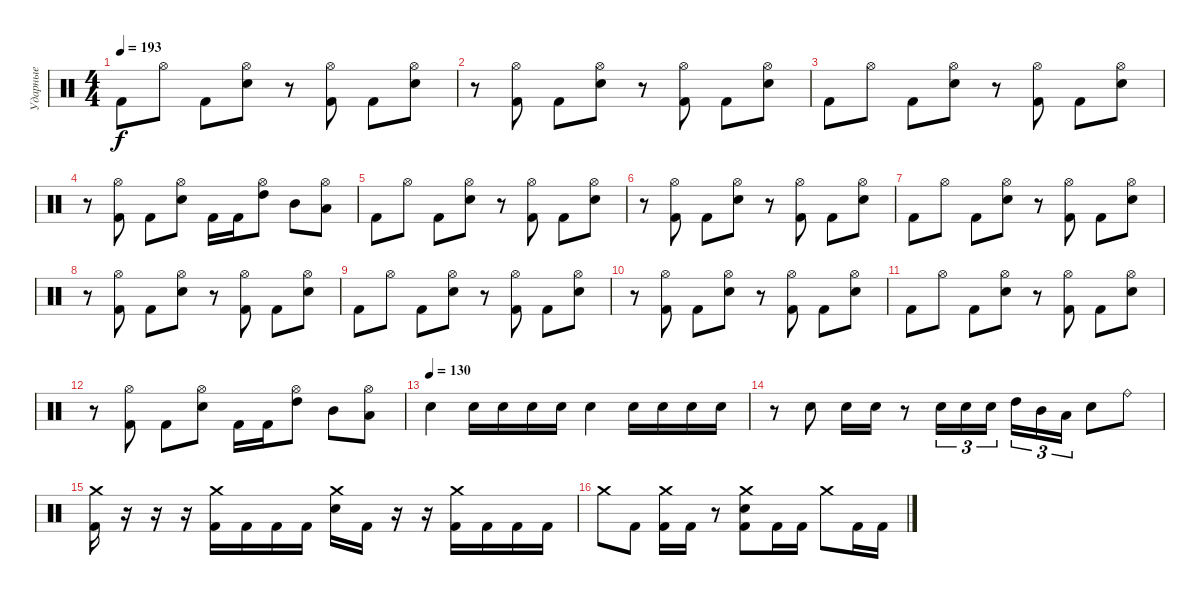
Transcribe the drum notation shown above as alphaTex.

\track ("Ударные" "Ударные") {instrument percussion}
\staff {score}
\articulation defaults
\ts (4 4)
\tempo 193
\clef neutral
\ks c "Kick (hit) 2".8{dy f} "Hi-Hat (open)".8 "Kick (hit) 2".8
("Hi-Hat (open)" "Electric Snare (hit)").8 r.8 ("Hi-Hat (open)" "Kick (hit) 2").8 "Kick (hit) 2".8 ("Hi-Hat (open)" "Electric Snare (hit)").8 |
r.8 ("Hi-Hat (open)" "Kick (hit) 2").8 "Kick (hit) 2".8 ("Hi-Hat (open)" "Electric Snare (hit)").8 r.8 ("Hi-Hat (open)" "Kick (hit) 2").8 "Kick (hit) 2".8 ("Hi-Hat (open)" "Electric Snare (hit)").8 |
"Kick (hit) 2".8 "Hi-Hat (open)".8 "Kick (hit) 2".8 ("Hi-Hat (open)" "Electric Snare (hit)").8 r.8 ("Hi-Hat (open)" "Kick (hit) 2").8 "Kick (hit) 2".8 ("Hi-Hat (open)" "Electric Snare (hit)").8 |
r.8 ("Hi-Hat (open)" "Kick (hit) 2").8 "Kick (hit) 2".8 ("Hi-Hat (open)" "Electric Snare (hit)").8 "Kick (hit) 2".16 "Kick (hit) 2".16 ("Hi-Hat (open)" "High Tom (hit)").8 "Mid Tom (hit)".8 ("Hi-Hat (open)" "Low Tom (hit)").8 |
"Kick (hit) 2".8 "Hi-Hat (open)".8 "Kick (hit) 2".8 ("Hi-Hat (open)" "Electric Snare (hit)").8 r.8 ("Hi-Hat (open)" "Kick (hit) 2").8 "Kick (hit) 2".8 ("Hi-Hat (open)" "Electric Snare (hit)").8 |
r.8 ("Hi-Hat (open)" "Kick (hit) 2").8 "Kick (hit) 2".8 ("Hi-Hat (open)" "Electric Snare (hit)").8 r.8 ("Hi-Hat (open)" "Kick (hit) 2").8 "Kick (hit) 2".8 ("Hi-Hat (open)" "Electric Snare (hit)").8 |
"Kick (hit) 2".8 "Hi-Hat (open)".8 "Kick (hit) 2".8 ("Hi-Hat (open)" "Electric Snare (hit)").8 r.8 ("Hi-Hat (open)" "Kick (hit) 2").8 "Kick (hit) 2".8 ("Hi-Hat (open)" "Electric Snare (hit)").8 |
r.8 ("Hi-Hat (open)" "Kick (hit) 2").8 "Kick (hit) 2".8 ("Hi-Hat (open)" "Electric Snare (hit)").8 r.8 ("Hi-Hat (open)" "Kick (hit) 2").8 "Kick (hit) 2".8 ("Hi-Hat (open)" "Electric Snare (hit)").8 |
"Kick (hit) 2".8 "Hi-Hat (open)".8 "Kick (hit) 2".8 ("Hi-Hat (open)" "Electric Snare (hit)").8 r.8 ("Hi-Hat (open)" "Kick (hit) 2").8 "Kick (hit) 2".8 ("Hi-Hat (open)" "Electric Snare (hit)").8 |
r.8 ("Hi-Hat (open)" "Kick (hit) 2").8 "Kick (hit) 2".8 ("Hi-Hat (open)" "Electric Snare (hit)").8 r.8 ("Hi-Hat (open)" "Kick (hit) 2").8 "Kick (hit) 2".8 ("Hi-Hat (open)" "Electric Snare (hit)").8 |
"Kick (hit) 2".8 "Hi-Hat (open)".8 "Kick (hit) 2".8 ("Hi-Hat (open)" "Electric Snare (hit)").8 r.8 ("Hi-Hat (open)" "Kick (hit) 2").8 "Kick (hit) 2".8 ("Hi-Hat (open)" "Electric Snare (hit)").8 |
r.8 ("Hi-Hat (open)" "Kick (hit) 2").8 "Kick (hit) 2".8 ("Hi-Hat (open)" "Electric Snare (hit)").8 "Kick (hit) 2".16 "Kick (hit) 2".16 ("Hi-Hat (open)" "High Tom (hit)").8 "Mid Tom (hit)".8 ("Hi-Hat (open)" "Low Tom (hit)").8 |
\tempo (130)
"Electric Snare (hit)".4 "Electric Snare (hit)".16 "Electric Snare (hit)".16 "Electric Snare (hit)".16 "Electric Snare (hit)".16 "Electric Snare (hit)".4 "Electric Snare (hit)".16 "Electric Snare (hit)".16 "Electric Snare (hit)".16 "Electric Snare (hit)".16 |
r.8 "Electric Snare (hit)".8 "Electric Snare (hit)".16 "Electric Snare (hit)".16 r.8 "Electric Snare (hit)".16{tu (3 2)} "Electric Snare (hit)".16{tu (3 2)} "Electric Snare (hit)".16{tu (3 2) beam splitsecondary} "High Tom (hit)".16{tu (3 2)} "Mid Tom (hit)".16{tu (3 2)} "Low Tom (hit)".16{tu (3 2)} "Electric Snare (hit)".8 "Ride (bell)".8 |
("Crash medium (hit)" "Kick (hit) 2").16 r.16 r.16 r.16 ("Crash medium (hit)" "Kick (hit) 2").16 "Kick (hit) 2".16 "Kick (hit) 2".16 "Kick (hit) 2".16 ("Crash medium (hit)" "Electric Snare (hit)").16 "Kick (hit) 2".16 r.16 r.16 ("Crash medium (hit)" "Kick (hit) 2").16 "Kick (hit) 2".16 "Kick (hit) 2".16 "Kick (hit) 2".16 |
"Crash medium (hit)".8 "Kick (hit) 2".8 ("Crash medium (hit)" "Kick (hit) 2").16 "Kick (hit) 2".16 r.8 ("Crash medium (hit)" "Electric Snare (hit)" "Kick (hit) 2").8 "Kick (hit) 2".16 "Kick (hit) 2".16 "Crash medium (hit)".8 "Kick (hit) 2".16 "Kick (hit) 2".16
